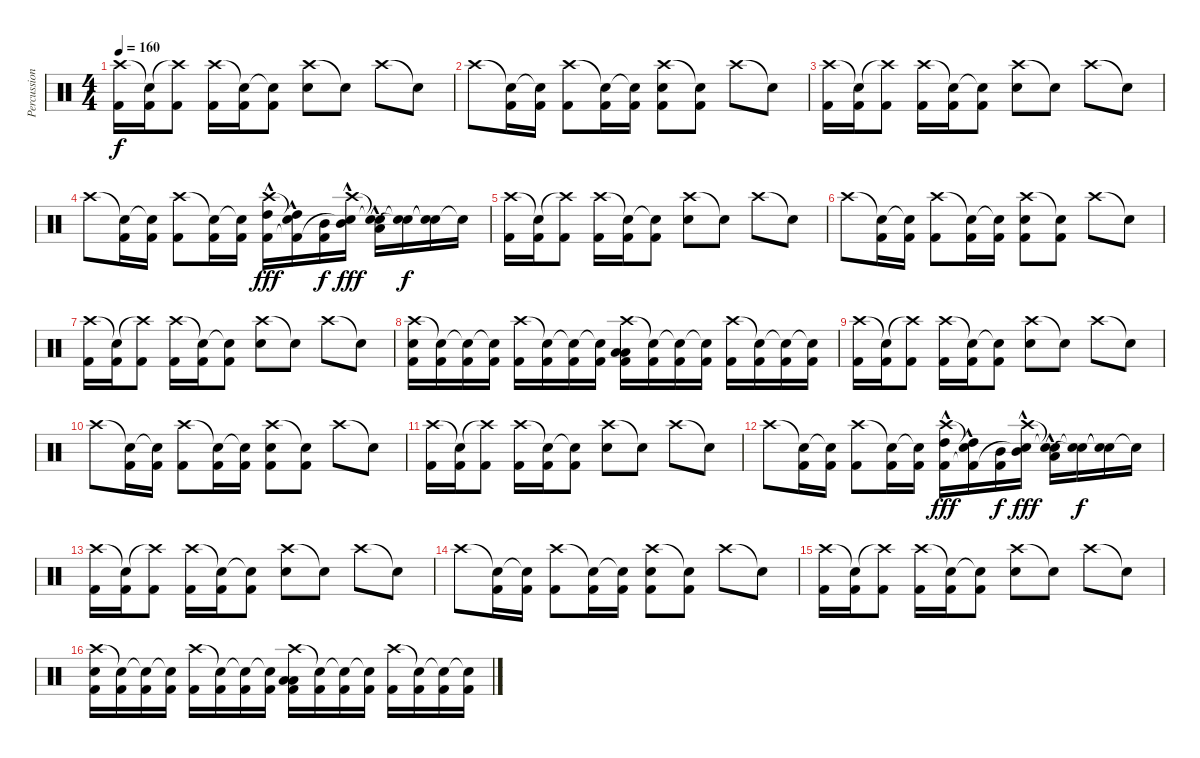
\track ("Percussion" "Percussion") {instrument percussion}
\staff {score}
\articulation defaults
\ts (4 4)
\tempo 160
\clef neutral
\ks c
("Crash high (hit)" "Kick (hit) 2").16{dy f} ("Snare (hit)"{t} "Kick (hit) 2").16 ("Crash high (hit)"{t} "Kick (hit) 2").8 ("Crash high (hit)" "Kick (hit) 2").16 ("Snare (hit)"{t} "Kick (hit) 2").16 ("Snare (hit)"{t} "Kick (hit) 2").8 ("Crash high (hit)" "Electric Snare (hit)").8 "Snare (hit)"{t}.8 "Crash high (hit)".8 "Snare (hit)"{t}.8 |
"Crash high (hit)".8 ("Snare (hit)"{t} "Kick (hit) 2").16 ("Snare (hit)"{t} "Kick (hit) 2").16 ("Crash high (hit)" "Kick (hit) 2").8 ("Snare (hit)"{t} "Kick (hit) 2").16 ("Snare (hit)"{t} "Kick (hit) 2").16 ("Crash high (hit)" "Electric Snare (hit)" "Kick (hit) 2").8 ("Snare (hit)"{t} "Kick (hit) 2").8 "Crash high (hit)".8 "Snare (hit)"{t}.8 |
("Crash high (hit)" "Kick (hit) 2").16 ("Snare (hit)"{t} "Kick (hit) 2").16 ("Crash high (hit)"{t} "Kick (hit) 2").8 ("Crash high (hit)" "Kick (hit) 2").16 ("Snare (hit)"{t} "Kick (hit) 2").16 ("Snare (hit)"{t} "Kick (hit) 2").8 ("Crash high (hit)" "Electric Snare (hit)").8 "Snare (hit)"{t}.8 "Crash high (hit)".8 "Snare (hit)"{t}.8 |
"Crash high (hit)".8 ("Snare (hit)"{t} "Kick (hit) 2").16 ("Snare (hit)"{t} "Kick (hit) 2").16 ("Crash high (hit)" "Kick (hit) 2").8 ("Snare (hit)"{t} "Kick (hit) 2").16 ("Snare (hit)"{t} "Kick (hit) 2").16 ("Crash high (hit)" "High Tom (hit)"{hac} "Kick (hit) 2").16{dy fff} ("Snare (hit)"{t} "High Tom (hit)"{hac} "Kick (hit) 2"{t}).16 ("Mid Tom (hit)" "Kick (hit) 2").16{dy f} ("Crash high (hit)" "Mid Tom (hit)"{hac} "Snare (hit)"{t}).16{dy fff} ("Snare (hit)"{t} "Low Tom (hit)"{hac} "Snare (hit)"{t}).16 ("Snare (hit)"{t} "Snare (hit)"{t}).16{dy f} ("Snare (hit)"{t} "Snare (hit)"{t}).16 "Snare (hit)"{t}.16 |
("Crash high (hit)" "Kick (hit) 2").16 ("Snare (hit)"{t} "Kick (hit) 2").16 ("Crash high (hit)"{t} "Kick (hit) 2").8 ("Crash high (hit)" "Kick (hit) 2").16 ("Snare (hit)"{t} "Kick (hit) 2").16 ("Snare (hit)"{t} "Kick (hit) 2").8 ("Crash high (hit)" "Electric Snare (hit)").8 "Snare (hit)"{t}.8 "Crash high (hit)".8 "Snare (hit)"{t}.8 |
"Crash high (hit)".8 ("Snare (hit)"{t} "Kick (hit) 2").16 ("Snare (hit)"{t} "Kick (hit) 2").16 ("Crash high (hit)" "Kick (hit) 2").8 ("Snare (hit)"{t} "Kick (hit) 2").16 ("Snare (hit)"{t} "Kick (hit) 2").16 ("Crash high (hit)" "Electric Snare (hit)" "Kick (hit) 2").8 ("Snare (hit)"{t} "Kick (hit) 2").8 "Crash high (hit)".8 "Snare (hit)"{t}.8 |
("Crash high (hit)" "Kick (hit) 2").16 ("Snare (hit)"{t} "Kick (hit) 2").16 ("Crash high (hit)"{t} "Kick (hit) 2").8 ("Crash high (hit)" "Kick (hit) 2").16 ("Snare (hit)"{t} "Kick (hit) 2").16 ("Snare (hit)"{t} "Kick (hit) 2").8 ("Crash high (hit)" "Electric Snare (hit)").8 "Snare (hit)"{t}.8 "Crash high (hit)".8 "Snare (hit)"{t}.8 |
("Crash high (hit)" "Electric Snare (hit)" "Kick (hit) 2").16 ("Snare (hit)"{t} "Kick (hit) 2").16 ("Snare (hit)"{t} "Kick (hit) 2").16 ("Snare (hit)"{t} "Kick (hit) 2").16 ("Crash high (hit)" "Kick (hit) 2").16 ("Snare (hit)"{t} "Kick (hit) 2").16 ("Snare (hit)"{t} "Kick (hit) 2").16 ("Snare (hit)"{t} "Kick (hit) 2").16 ("Crash high (hit)" "Low Tom (hit)" "Low Floor Tom (hit)" "Kick (hit) 2").16 ("Snare (hit)"{t} "Kick (hit) 2").16 ("Snare (hit)"{t} "Kick (hit) 2").16 ("Snare (hit)"{t} "Kick (hit) 2").16 ("Crash high (hit)" "Kick (hit) 2").16 ("Snare (hit)"{t} "Kick (hit) 2").16 ("Snare (hit)"{t} "Kick (hit) 2").16 ("Snare (hit)"{t} "Kick (hit) 2").16 |
("Crash high (hit)" "Kick (hit) 2").16 ("Snare (hit)"{t} "Kick (hit) 2").16 ("Crash high (hit)"{t} "Kick (hit) 2").8 ("Crash high (hit)" "Kick (hit) 2").16 ("Snare (hit)"{t} "Kick (hit) 2").16 ("Snare (hit)"{t} "Kick (hit) 2").8 ("Crash high (hit)" "Electric Snare (hit)").8 "Snare (hit)"{t}.8 "Crash high (hit)".8 "Snare (hit)"{t}.8 |
"Crash high (hit)".8 ("Snare (hit)"{t} "Kick (hit) 2").16 ("Snare (hit)"{t} "Kick (hit) 2").16 ("Crash high (hit)" "Kick (hit) 2").8 ("Snare (hit)"{t} "Kick (hit) 2").16 ("Snare (hit)"{t} "Kick (hit) 2").16 ("Crash high (hit)" "Electric Snare (hit)" "Kick (hit) 2").8 ("Snare (hit)"{t} "Kick (hit) 2").8 "Crash high (hit)".8 "Snare (hit)"{t}.8 |
("Crash high (hit)" "Kick (hit) 2").16 ("Snare (hit)"{t} "Kick (hit) 2").16 ("Crash high (hit)"{t} "Kick (hit) 2").8 ("Crash high (hit)" "Kick (hit) 2").16 ("Snare (hit)"{t} "Kick (hit) 2").16 ("Snare (hit)"{t} "Kick (hit) 2").8 ("Crash high (hit)" "Electric Snare (hit)").8 "Snare (hit)"{t}.8 "Crash high (hit)".8 "Snare (hit)"{t}.8 |
"Crash high (hit)".8 ("Snare (hit)"{t} "Kick (hit) 2").16 ("Snare (hit)"{t} "Kick (hit) 2").16 ("Crash high (hit)" "Kick (hit) 2").8 ("Snare (hit)"{t} "Kick (hit) 2").16 ("Snare (hit)"{t} "Kick (hit) 2").16 ("Crash high (hit)" "High Tom (hit)"{hac} "Kick (hit) 2").16{dy fff} ("Snare (hit)"{t} "High Tom (hit)"{hac} "Kick (hit) 2"{t}).16 ("Mid Tom (hit)" "Kick (hit) 2").16{dy f} ("Crash high (hit)" "Mid Tom (hit)"{hac} "Snare (hit)"{t}).16{dy fff} ("Snare (hit)"{t} "Low Tom (hit)"{hac} "Snare (hit)"{t}).16 ("Snare (hit)"{t} "Snare (hit)"{t}).16{dy f} ("Snare (hit)"{t} "Snare (hit)"{t}).16 "Snare (hit)"{t}.16 |
("Crash high (hit)" "Kick (hit) 2").16 ("Snare (hit)"{t} "Kick (hit) 2").16 ("Crash high (hit)"{t} "Kick (hit) 2").8 ("Crash high (hit)" "Kick (hit) 2").16 ("Snare (hit)"{t} "Kick (hit) 2").16 ("Snare (hit)"{t} "Kick (hit) 2").8 ("Crash high (hit)" "Electric Snare (hit)").8 "Snare (hit)"{t}.8 "Crash high (hit)".8 "Snare (hit)"{t}.8 |
"Crash high (hit)".8 ("Snare (hit)"{t} "Kick (hit) 2").16 ("Snare (hit)"{t} "Kick (hit) 2").16 ("Crash high (hit)" "Kick (hit) 2").8 ("Snare (hit)"{t} "Kick (hit) 2").16 ("Snare (hit)"{t} "Kick (hit) 2").16 ("Crash high (hit)" "Electric Snare (hit)" "Kick (hit) 2").8 ("Snare (hit)"{t} "Kick (hit) 2").8 "Crash high (hit)".8 "Snare (hit)"{t}.8 |
("Crash high (hit)" "Kick (hit) 2").16 ("Snare (hit)"{t} "Kick (hit) 2").16 ("Crash high (hit)"{t} "Kick (hit) 2").8 ("Crash high (hit)" "Kick (hit) 2").16 ("Snare (hit)"{t} "Kick (hit) 2").16 ("Snare (hit)"{t} "Kick (hit) 2").8 ("Crash high (hit)" "Electric Snare (hit)").8 "Snare (hit)"{t}.8 "Crash high (hit)".8 "Snare (hit)"{t}.8 |
("Crash high (hit)" "Electric Snare (hit)" "Kick (hit) 2").16 ("Snare (hit)"{t} "Kick (hit) 2").16 ("Snare (hit)"{t} "Kick (hit) 2").16 ("Snare (hit)"{t} "Kick (hit) 2").16 ("Crash high (hit)" "Kick (hit) 2").16 ("Snare (hit)"{t} "Kick (hit) 2").16 ("Snare (hit)"{t} "Kick (hit) 2").16 ("Snare (hit)"{t} "Kick (hit) 2").16 ("Crash high (hit)" "Low Tom (hit)" "Low Floor Tom (hit)" "Kick (hit) 2").16 ("Snare (hit)"{t} "Kick (hit) 2").16 ("Snare (hit)"{t} "Kick (hit) 2").16 ("Snare (hit)"{t} "Kick (hit) 2").16 ("Crash high (hit)" "Kick (hit) 2").16 ("Snare (hit)"{t} "Kick (hit) 2").16 ("Snare (hit)"{t} "Kick (hit) 2").16 ("Snare (hit)"{t} "Kick (hit) 2").16
